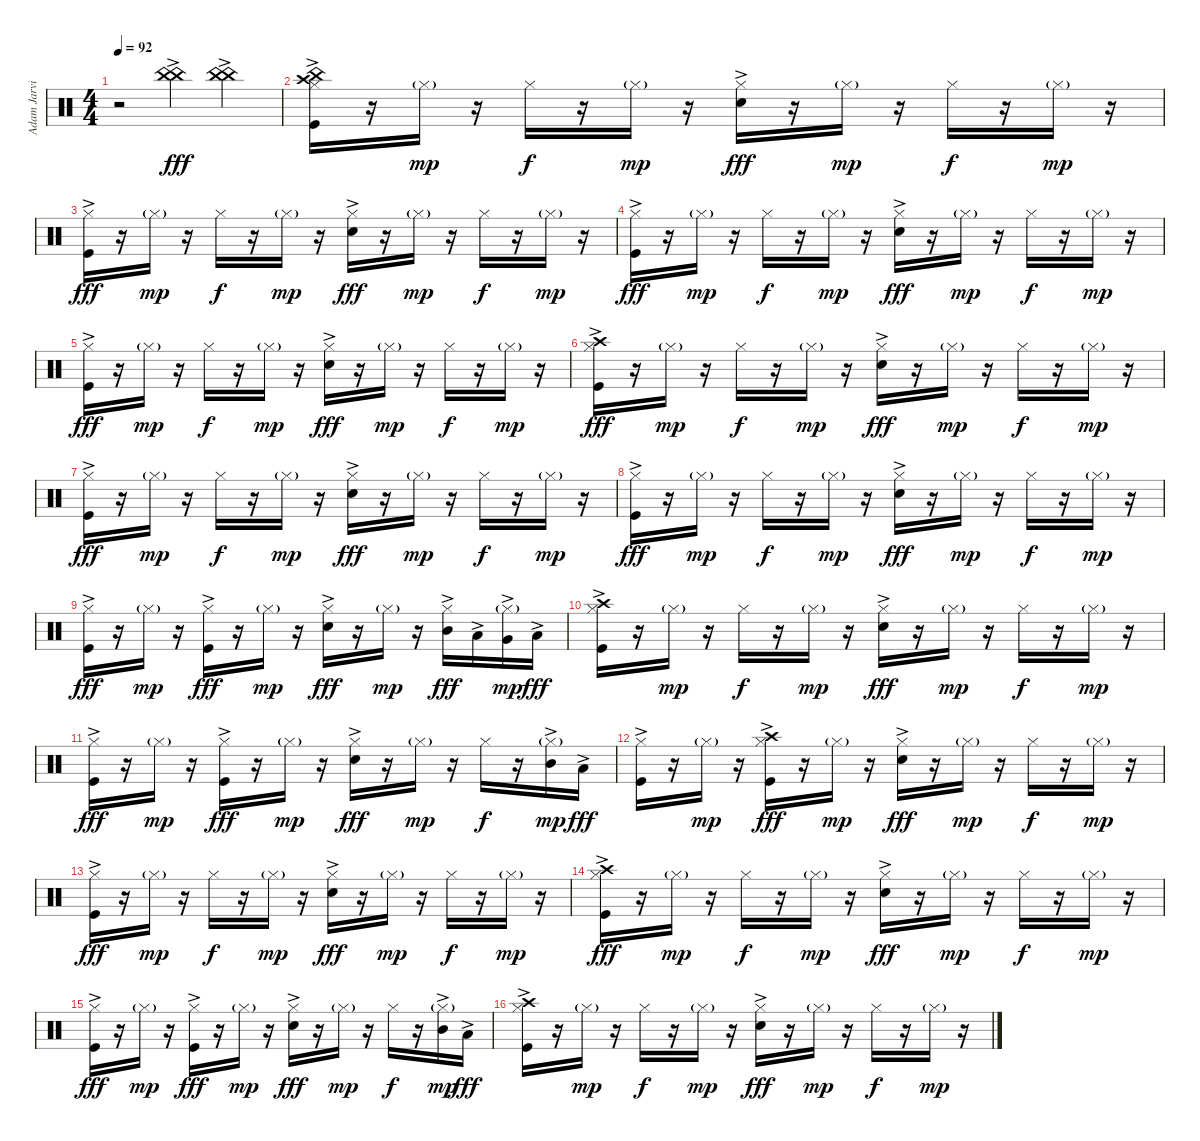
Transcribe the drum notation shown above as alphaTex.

\track ("Adam Jarvis - Drums" "Adam Jarvi") {instrument percussion}
\staff {score}
\articulation defaults
\ts (4 4)
\tempo 92
\clef neutral
\ks c
r.2{dy fff} ("China (hit)"{ac} "China (hit)"{ac}).4 ("China (hit)"{ac} "China (hit)"{ac}).4 |
("Kick (hit)"{ac} "Hi-Hat (closed)" "Crash high (hit)"{ac} "China (hit)").16 r.16 "Hi-Hat (closed)"{g}.16{dy mp} r.16 "Hi-Hat (closed)".16{dy f} r.16 "Hi-Hat (closed)"{g}.16{dy mp} r.16 ("Electric Snare (hit)"{ac} "Hi-Hat (closed)").16{dy fff} r.16 "Hi-Hat (closed)"{g}.16{dy mp} r.16 "Hi-Hat (closed)".16{dy f} r.16 "Hi-Hat (closed)"{g}.16{dy mp} r.16 |
("Kick (hit)"{ac} "Hi-Hat (closed)").16{dy fff} r.16 "Hi-Hat (closed)"{g}.16{dy mp} r.16 "Hi-Hat (closed)".16{dy f} r.16 "Hi-Hat (closed)"{g}.16{dy mp} r.16 ("Electric Snare (hit)"{ac} "Hi-Hat (closed)").16{dy fff} r.16 "Hi-Hat (closed)"{g}.16{dy mp} r.16 "Hi-Hat (closed)".16{dy f} r.16 "Hi-Hat (closed)"{g}.16{dy mp} r.16 |
("Kick (hit)"{ac} "Hi-Hat (closed)").16{dy fff} r.16 "Hi-Hat (closed)"{g}.16{dy mp} r.16 "Hi-Hat (closed)".16{dy f} r.16 "Hi-Hat (closed)"{g}.16{dy mp} r.16 ("Electric Snare (hit)"{ac} "Hi-Hat (closed)").16{dy fff} r.16 "Hi-Hat (closed)"{g}.16{dy mp} r.16 "Hi-Hat (closed)".16{dy f} r.16 "Hi-Hat (closed)"{g}.16{dy mp} r.16 |
("Kick (hit)"{ac} "Hi-Hat (closed)").16{dy fff} r.16 "Hi-Hat (closed)"{g}.16{dy mp} r.16 "Hi-Hat (closed)".16{dy f} r.16 "Hi-Hat (closed)"{g}.16{dy mp} r.16 ("Electric Snare (hit)"{ac} "Hi-Hat (closed)").16{dy fff} r.16 "Hi-Hat (closed)"{g}.16{dy mp} r.16 "Hi-Hat (closed)".16{dy f} r.16 "Hi-Hat (closed)"{g}.16{dy mp} r.16 |
("Kick (hit)"{ac} "Hi-Hat (closed)" "Crash high (hit)"{ac}).16{dy fff} r.16 "Hi-Hat (closed)"{g}.16{dy mp} r.16 "Hi-Hat (closed)".16{dy f} r.16 "Hi-Hat (closed)"{g}.16{dy mp} r.16 ("Electric Snare (hit)"{ac} "Hi-Hat (closed)").16{dy fff} r.16 "Hi-Hat (closed)"{g}.16{dy mp} r.16 "Hi-Hat (closed)".16{dy f} r.16 "Hi-Hat (closed)"{g}.16{dy mp} r.16 |
("Kick (hit)"{ac} "Hi-Hat (closed)").16{dy fff} r.16 "Hi-Hat (closed)"{g}.16{dy mp} r.16 "Hi-Hat (closed)".16{dy f} r.16 "Hi-Hat (closed)"{g}.16{dy mp} r.16 ("Electric Snare (hit)"{ac} "Hi-Hat (closed)").16{dy fff} r.16 "Hi-Hat (closed)"{g}.16{dy mp} r.16 "Hi-Hat (closed)".16{dy f} r.16 "Hi-Hat (closed)"{g}.16{dy mp} r.16 |
("Kick (hit)"{ac} "Hi-Hat (closed)").16{dy fff} r.16 "Hi-Hat (closed)"{g}.16{dy mp} r.16 "Hi-Hat (closed)".16{dy f} r.16 "Hi-Hat (closed)"{g}.16{dy mp} r.16 ("Electric Snare (hit)"{ac} "Hi-Hat (closed)").16{dy fff} r.16 "Hi-Hat (closed)"{g}.16{dy mp} r.16 "Hi-Hat (closed)".16{dy f} r.16 "Hi-Hat (closed)"{g}.16{dy mp} r.16 |
("Kick (hit)"{ac} "Hi-Hat (closed)").16{dy fff} r.16 "Hi-Hat (closed)"{g}.16{dy mp} r.16 ("Kick (hit)"{ac} "Hi-Hat (closed)").16{dy fff} r.16 "Hi-Hat (closed)"{g}.16{dy mp} r.16 ("Electric Snare (hit)"{ac} "Hi-Hat (closed)").16{dy fff} r.16 "Hi-Hat (closed)"{g}.16{dy mp} r.16 ("Mid Tom (hit)"{ac} "Hi-Hat (closed)").16{dy fff} "Low Tom (hit)"{ac}.16 ("Very Low Tom (hit)"{ac} "Hi-Hat (closed)"{g}).16{dy mp} "Low Floor Tom (hit)"{ac}.16{dy fff} |
("Kick (hit)"{ac} "Hi-Hat (closed)" "Crash high (hit)"{ac}).16 r.16 "Hi-Hat (closed)"{g}.16{dy mp} r.16 "Hi-Hat (closed)".16{dy f} r.16 "Hi-Hat (closed)"{g}.16{dy mp} r.16 ("Electric Snare (hit)"{ac} "Hi-Hat (closed)").16{dy fff} r.16 "Hi-Hat (closed)"{g}.16{dy mp} r.16 "Hi-Hat (closed)".16{dy f} r.16 "Hi-Hat (closed)"{g}.16{dy mp} r.16 |
("Kick (hit)"{ac} "Hi-Hat (closed)").16{dy fff} r.16 "Hi-Hat (closed)"{g}.16{dy mp} r.16 ("Kick (hit)"{ac} "Hi-Hat (closed)").16{dy fff} r.16 "Hi-Hat (closed)"{g}.16{dy mp} r.16 ("Electric Snare (hit)"{ac} "Hi-Hat (closed)").16{dy fff} r.16 "Hi-Hat (closed)"{g}.16{dy mp} r.16 "Hi-Hat (closed)".16{dy f} r.16 ("Mid Tom (hit)"{ac} "Hi-Hat (closed)"{g}).16{dy mp} "Low Tom (hit)"{ac}.16{dy fff} |
("Kick (hit)"{ac} "Hi-Hat (closed)").16 r.16 "Hi-Hat (closed)"{g}.16{dy mp} r.16 ("Kick (hit)"{ac} "Hi-Hat (closed)" "Crash high (hit)"{ac}).16{dy fff} r.16 "Hi-Hat (closed)"{g}.16{dy mp} r.16 ("Electric Snare (hit)"{ac} "Hi-Hat (closed)").16{dy fff} r.16 "Hi-Hat (closed)"{g}.16{dy mp} r.16 "Hi-Hat (closed)".16{dy f} r.16 "Hi-Hat (closed)"{g}.16{dy mp} r.16 |
("Kick (hit)"{ac} "Hi-Hat (closed)").16{dy fff} r.16 "Hi-Hat (closed)"{g}.16{dy mp} r.16 "Hi-Hat (closed)".16{dy f} r.16 "Hi-Hat (closed)"{g}.16{dy mp} r.16 ("Electric Snare (hit)"{ac} "Hi-Hat (closed)").16{dy fff} r.16 "Hi-Hat (closed)"{g}.16{dy mp} r.16 "Hi-Hat (closed)".16{dy f} r.16 "Hi-Hat (closed)"{g}.16{dy mp} r.16 |
("Kick (hit)"{ac} "Hi-Hat (closed)" "Crash high (hit)"{ac}).16{dy fff} r.16 "Hi-Hat (closed)"{g}.16{dy mp} r.16 "Hi-Hat (closed)".16{dy f} r.16 "Hi-Hat (closed)"{g}.16{dy mp} r.16 ("Electric Snare (hit)"{ac} "Hi-Hat (closed)").16{dy fff} r.16 "Hi-Hat (closed)"{g}.16{dy mp} r.16 "Hi-Hat (closed)".16{dy f} r.16 "Hi-Hat (closed)"{g}.16{dy mp} r.16 |
("Kick (hit)"{ac} "Hi-Hat (closed)").16{dy fff} r.16 "Hi-Hat (closed)"{g}.16{dy mp} r.16 ("Kick (hit)"{ac} "Hi-Hat (closed)").16{dy fff} r.16 "Hi-Hat (closed)"{g}.16{dy mp} r.16 ("Electric Snare (hit)"{ac} "Hi-Hat (closed)").16{dy fff} r.16 "Hi-Hat (closed)"{g}.16{dy mp} r.16 "Hi-Hat (closed)".16{dy f} r.16 ("Mid Tom (hit)"{ac} "Hi-Hat (closed)"{g}).16{dy mp} "Low Tom (hit)"{ac}.16{dy fff} |
("Kick (hit)"{ac} "Hi-Hat (closed)" "Crash high (hit)"{ac}).16 r.16 "Hi-Hat (closed)"{g}.16{dy mp} r.16 "Hi-Hat (closed)".16{dy f} r.16 "Hi-Hat (closed)"{g}.16{dy mp} r.16 ("Electric Snare (hit)"{ac} "Hi-Hat (closed)").16{dy fff} r.16 "Hi-Hat (closed)"{g}.16{dy mp} r.16 "Hi-Hat (closed)".16{dy f} r.16 "Hi-Hat (closed)"{g}.16{dy mp} r.16
